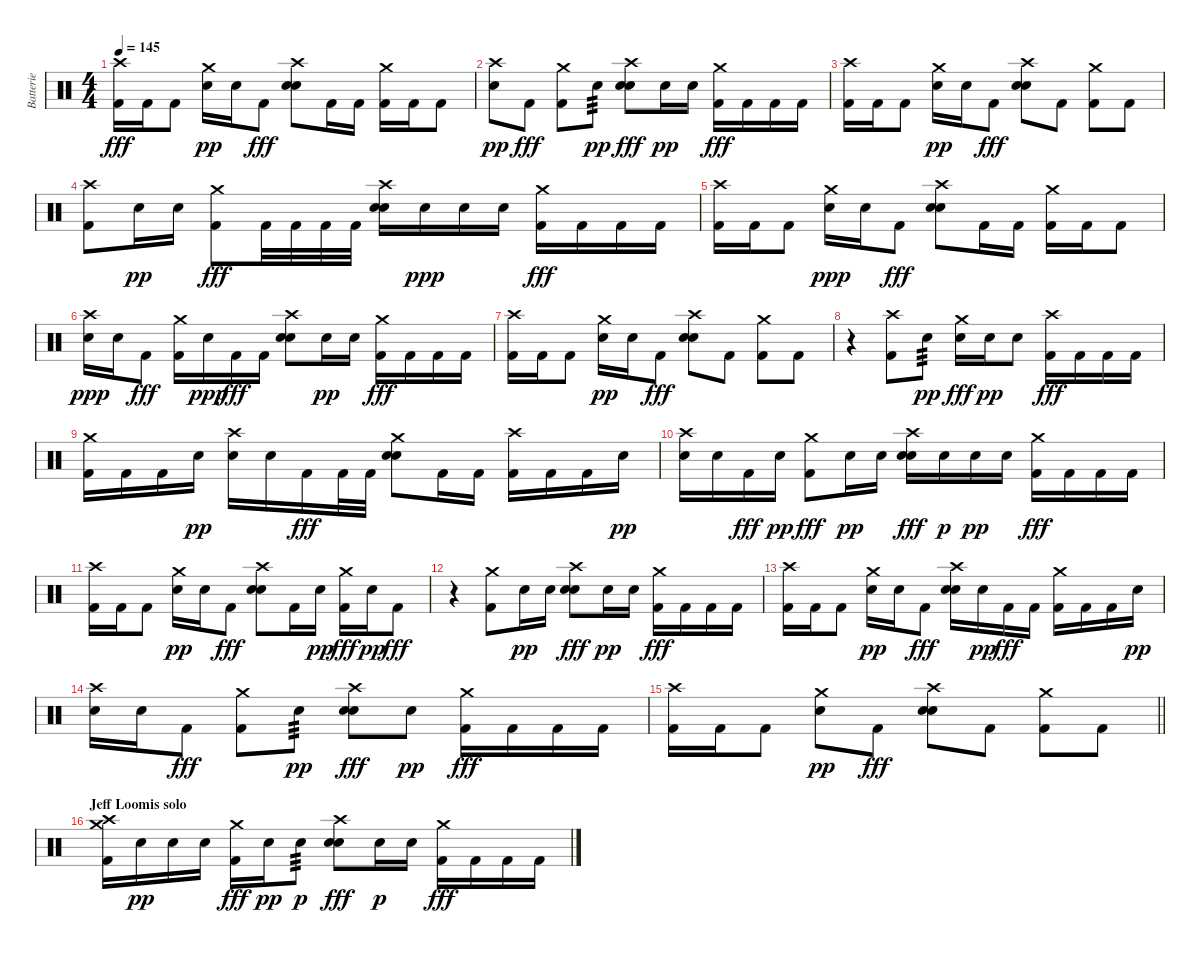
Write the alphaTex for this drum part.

\track ("Batterie" "Batterie") {instrument percussion}
\staff {score}
\articulation defaults
\ts (4 4)
\tempo 145
\clef neutral
\ks c
("Crash high (hit)" "Kick (hit) 2").16{dy fff} "Kick (hit) 2".16 "Kick (hit) 2".8 ("Crash medium (hit)" "Electric Snare (hit)").16{dy pp} "Electric Snare (hit)".16 "Kick (hit) 2".8{dy fff} ("Crash high (hit)" "Electric Snare (hit)" "Electric Snare (hit)").8 "Kick (hit) 2".16 "Kick (hit) 2".16 ("Crash medium (hit)" "Kick (hit) 2").16 "Kick (hit) 2".16 "Kick (hit) 2".8 |
("Crash high (hit)" "Electric Snare (hit)").8{dy pp} "Kick (hit) 2".8{dy fff} ("Crash medium (hit)" "Kick (hit) 2").8 "Electric Snare (hit)".8{tp 3 dy pp} ("Crash high (hit)" "Electric Snare (hit)" "Electric Snare (hit)").8{dy fff} "Electric Snare (hit)".16{dy pp} "Electric Snare (hit)".16 ("Crash medium (hit)" "Kick (hit) 2").16{dy fff} "Kick (hit) 2".16 "Kick (hit) 2".16 "Kick (hit) 2".16 |
("Crash high (hit)" "Kick (hit) 2").16 "Kick (hit) 2".16 "Kick (hit) 2".8 ("Crash medium (hit)" "Electric Snare (hit)").16{dy pp} "Electric Snare (hit)".16 "Kick (hit) 2".8{dy fff} ("Crash high (hit)" "Electric Snare (hit)" "Electric Snare (hit)").8 "Kick (hit) 2".8 ("Crash medium (hit)" "Kick (hit) 2").8 "Kick (hit) 2".8 |
("Crash high (hit)" "Kick (hit) 2").8 "Electric Snare (hit)".16{dy pp} "Electric Snare (hit)".16 ("Crash medium (hit)" "Kick (hit) 2").8{dy fff} "Kick (hit) 2".32 "Kick (hit) 2".32 "Kick (hit) 2".32 "Kick (hit) 2".32 ("Crash high (hit)" "Electric Snare (hit)" "Electric Snare (hit)").16 "Electric Snare (hit)".16{dy ppp} "Electric Snare (hit)".16 "Electric Snare (hit)".16 ("Crash medium (hit)" "Kick (hit) 2").16{dy fff} "Kick (hit) 2".16 "Kick (hit) 2".16 "Kick (hit) 2".16 |
("Crash high (hit)" "Kick (hit) 2").16 "Kick (hit) 2".16 "Kick (hit) 2".8 ("Crash medium (hit)" "Electric Snare (hit)").16{dy ppp} "Electric Snare (hit)".16 "Kick (hit) 2".8{dy fff} ("Crash high (hit)" "Electric Snare (hit)" "Electric Snare (hit)").8 "Kick (hit) 2".16 "Kick (hit) 2".16 ("Crash medium (hit)" "Kick (hit) 2").16 "Kick (hit) 2".16 "Kick (hit) 2".8 |
("Crash high (hit)" "Electric Snare (hit)").16{dy ppp} "Electric Snare (hit)".16 "Kick (hit) 2".8{dy fff} ("Crash medium (hit)" "Kick (hit) 2").16 "Electric Snare (hit)".16{dy ppp} "Kick (hit) 2".16{dy fff} "Kick (hit) 2".16 ("Crash high (hit)" "Electric Snare (hit)" "Electric Snare (hit)").8 "Electric Snare (hit)".16{dy pp} "Electric Snare (hit)".16 ("Crash medium (hit)" "Kick (hit) 2").16{dy fff} "Kick (hit) 2".16 "Kick (hit) 2".16 "Kick (hit) 2".16 |
("Crash high (hit)" "Kick (hit) 2").16 "Kick (hit) 2".16 "Kick (hit) 2".8 ("Crash medium (hit)" "Electric Snare (hit)").16{dy pp} "Electric Snare (hit)".16 "Kick (hit) 2".8{dy fff} ("Crash high (hit)" "Electric Snare (hit)" "Electric Snare (hit)").8 "Kick (hit) 2".8 ("Crash medium (hit)" "Kick (hit) 2").8 "Kick (hit) 2".8 |
r.4 ("Crash high (hit)" "Kick (hit) 2").8 "Electric Snare (hit)".8{tp 3 dy pp} ("Crash medium (hit)" "Electric Snare (hit)").16{dy fff} "Electric Snare (hit)".16{dy pp} "Electric Snare (hit)".8 ("Crash high (hit)" "Kick (hit) 2").16{dy fff} "Kick (hit) 2".16 "Kick (hit) 2".16 "Kick (hit) 2".16 |
("Crash medium (hit)" "Kick (hit) 2").16 "Kick (hit) 2".16 "Kick (hit) 2".16 "Electric Snare (hit)".16{dy pp} ("Crash high (hit)" "Electric Snare (hit)").16 "Electric Snare (hit)".16 "Kick (hit) 2".16{dy fff} "Kick (hit) 2".32 "Kick (hit) 2".32 ("Crash medium (hit)" "Electric Snare (hit)" "Electric Snare (hit)").8 "Kick (hit) 2".16 "Kick (hit) 2".16 ("Crash high (hit)" "Kick (hit) 2").16 "Kick (hit) 2".16 "Kick (hit) 2".16 "Electric Snare (hit)".16{dy pp} |
("Crash high (hit)" "Electric Snare (hit)").16 "Electric Snare (hit)".16 "Kick (hit) 2".16{dy fff} "Electric Snare (hit)".16{dy pp} ("Crash medium (hit)" "Kick (hit) 2").8{dy fff} "Electric Snare (hit)".16{dy pp} "Electric Snare (hit)".16 ("Crash high (hit)" "Electric Snare (hit)" "Electric Snare (hit)").16{dy fff} "Electric Snare (hit)".16{dy p} "Electric Snare (hit)".16{dy pp} "Electric Snare (hit)".16 ("Crash medium (hit)" "Kick (hit) 2").16{dy fff} "Kick (hit) 2".16 "Kick (hit) 2".16 "Kick (hit) 2".16 |
("Crash high (hit)" "Kick (hit) 2").16 "Kick (hit) 2".16 "Kick (hit) 2".8 ("Crash medium (hit)" "Electric Snare (hit)").16{dy pp} "Electric Snare (hit)".16 "Kick (hit) 2".8{dy fff} ("Crash high (hit)" "Electric Snare (hit)" "Electric Snare (hit)").8 "Kick (hit) 2".16 "Electric Snare (hit)".16{dy pp} ("Crash medium (hit)" "Kick (hit) 2").16{dy fff} "Electric Snare (hit)".16{dy pp} "Kick (hit) 2".8{dy fff} |
r.4 ("Crash medium (hit)" "Kick (hit) 2").8 "Electric Snare (hit)".16{dy pp} "Electric Snare (hit)".16 ("Crash high (hit)" "Electric Snare (hit)" "Electric Snare (hit)").8{dy fff} "Electric Snare (hit)".16{dy pp} "Electric Snare (hit)".16 ("Crash medium (hit)" "Kick (hit) 2").16{dy fff} "Kick (hit) 2".16 "Kick (hit) 2".16 "Kick (hit) 2".16 |
("Crash high (hit)" "Kick (hit) 2").16 "Kick (hit) 2".16 "Kick (hit) 2".8 ("Crash medium (hit)" "Electric Snare (hit)").16{dy pp} "Electric Snare (hit)".16 "Kick (hit) 2".8{dy fff} ("Crash high (hit)" "Electric Snare (hit)" "Electric Snare (hit)").16 "Electric Snare (hit)".16{dy pp} "Kick (hit) 2".16{dy fff} "Kick (hit) 2".16 ("Crash medium (hit)" "Kick (hit) 2").16 "Kick (hit) 2".16 "Kick (hit) 2".16 "Electric Snare (hit)".16{dy pp} |
("Crash high (hit)" "Electric Snare (hit)").16 "Electric Snare (hit)".16 "Kick (hit) 2".8{dy fff} ("Crash medium (hit)" "Kick (hit) 2").8 "Electric Snare (hit)".8{tp 3 dy pp} ("Crash high (hit)" "Electric Snare (hit)" "Electric Snare (hit)").8{dy fff} "Electric Snare (hit)".8{dy pp} ("Crash medium (hit)" "Kick (hit) 2").16{dy fff} "Kick (hit) 2".16 "Kick (hit) 2".16 "Kick (hit) 2".16 |
\barLineRight lightlight
("Crash high (hit)" "Kick (hit) 2").16 "Kick (hit) 2".16 "Kick (hit) 2".8 ("Crash medium (hit)" "Electric Snare (hit)").8{dy pp} "Kick (hit) 2".8{dy fff} ("Crash high (hit)" "Electric Snare (hit)" "Electric Snare (hit)").8 "Kick (hit) 2".8 ("Crash medium (hit)" "Kick (hit) 2").8 "Kick (hit) 2".8 |
\section ("" "Jeff Loomis solo")
("Crash high (hit)" "Crash medium (hit)" "Kick (hit) 2").16 "Electric Snare (hit)".16{dy pp} "Electric Snare (hit)".16 "Electric Snare (hit)".16 ("Crash medium (hit)" "Kick (hit) 2").16{dy fff} "Electric Snare (hit)".16{dy pp} "Electric Snare (hit)".8{tp 3 dy p} ("Crash high (hit)" "Electric Snare (hit)" "Electric Snare (hit)").8{dy fff} "Electric Snare (hit)".16{dy p} "Electric Snare (hit)".16 ("Crash medium (hit)" "Kick (hit) 2").16{dy fff} "Kick (hit) 2".16 "Kick (hit) 2".16 "Kick (hit) 2".16
